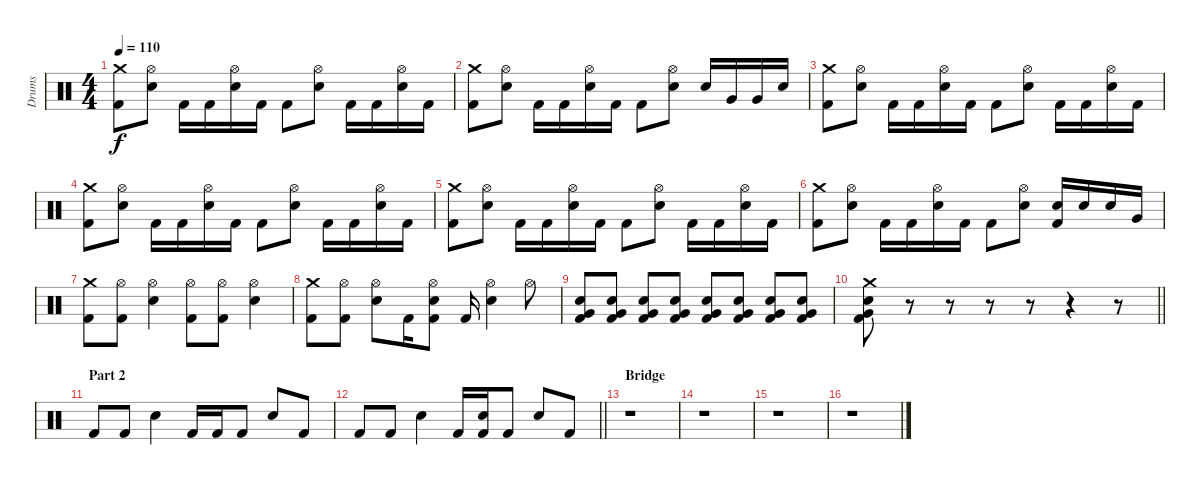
\track ("Drums" "Drums") {instrument percussion}
\staff {score}
\articulation defaults
\ts (4 4)
\tempo 110
\clef neutral
\ks c
("Crash medium (hit)" "Kick (hit) 2").8{dy f} ("Hi-Hat (open)" "Electric Snare (hit)").8 "Kick (hit) 2".16 "Kick (hit) 2".16 ("Hi-Hat (open)" "Electric Snare (hit)").16 "Kick (hit) 2".16 "Kick (hit) 2".8 ("Hi-Hat (open)" "Electric Snare (hit)").8 "Kick (hit) 2".16 "Kick (hit) 2".16 ("Hi-Hat (open)" "Electric Snare (hit)").16 "Kick (hit) 2".16 |
("Crash medium (hit)" "Kick (hit) 2").8 ("Hi-Hat (open)" "Electric Snare (hit)").8 "Kick (hit) 2".16 "Kick (hit) 2".16 ("Hi-Hat (open)" "Electric Snare (hit)").16 "Kick (hit) 2".16 "Kick (hit) 2".8 ("Hi-Hat (open)" "Electric Snare (hit)").8 "Electric Snare (hit)".16 "Very Low Tom (hit)".16 "Very Low Tom (hit)".16 "Electric Snare (hit)".16 |
("Crash medium (hit)" "Kick (hit) 2").8 ("Hi-Hat (open)" "Electric Snare (hit)").8 "Kick (hit) 2".16 "Kick (hit) 2".16 ("Hi-Hat (open)" "Electric Snare (hit)").16 "Kick (hit) 2".16 "Kick (hit) 2".8 ("Hi-Hat (open)" "Electric Snare (hit)").8 "Kick (hit) 2".16 "Kick (hit) 2".16 ("Hi-Hat (open)" "Electric Snare (hit)").16 "Kick (hit) 2".16 |
("Crash medium (hit)" "Kick (hit) 2").8 ("Hi-Hat (open)" "Electric Snare (hit)").8 "Kick (hit) 2".16 "Kick (hit) 2".16 ("Hi-Hat (open)" "Electric Snare (hit)").16 "Kick (hit) 2".16 "Kick (hit) 2".8 ("Hi-Hat (open)" "Electric Snare (hit)").8 "Kick (hit) 2".16 "Kick (hit) 2".16 ("Hi-Hat (open)" "Electric Snare (hit)").16 "Kick (hit) 2".16 |
("Crash medium (hit)" "Kick (hit) 2").8 ("Hi-Hat (open)" "Electric Snare (hit)").8 "Kick (hit) 2".16 "Kick (hit) 2".16 ("Hi-Hat (open)" "Electric Snare (hit)").16 "Kick (hit) 2".16 "Kick (hit) 2".8 ("Hi-Hat (open)" "Electric Snare (hit)").8 "Kick (hit) 2".16 "Kick (hit) 2".16 ("Hi-Hat (open)" "Electric Snare (hit)").16 "Kick (hit) 2".16 |
("Crash medium (hit)" "Kick (hit) 2").8 ("Hi-Hat (open)" "Electric Snare (hit)").8 "Kick (hit) 2".16 "Kick (hit) 2".16 ("Hi-Hat (open)" "Electric Snare (hit)").16 "Kick (hit) 2".16 "Kick (hit) 2".8 ("Hi-Hat (open)" "Electric Snare (hit)").8 ("Electric Snare (hit)" "Kick (hit) 2").16 "Electric Snare (hit)".16 "Electric Snare (hit)".16 "Very Low Tom (hit)".16 |
("Crash medium (hit)" "Kick (hit) 2").8 ("Hi-Hat (open)" "Kick (hit) 2").8 ("Hi-Hat (open)" "Electric Snare (hit)").4 ("Hi-Hat (open)" "Kick (hit) 2").8 ("Hi-Hat (open)" "Kick (hit) 2").8 ("Hi-Hat (open)" "Electric Snare (hit)").4 |
("Crash medium (hit)" "Kick (hit) 2").8 ("Hi-Hat (open)" "Kick (hit) 2").8 ("Hi-Hat (open)" "Electric Snare (hit)").8 "Kick (hit) 2".16 ("Hi-Hat (open)" "Electric Snare (hit)" "Kick (hit) 2").8 "Kick (hit) 2".16 ("Hi-Hat (open)" "Electric Snare (hit)").4 "Hi-Hat (open)".8 |
("Very Low Tom (hit)" "Electric Snare (hit)" "Kick (hit) 2").8 ("Very Low Tom (hit)" "Electric Snare (hit)" "Kick (hit) 2").8 ("Very Low Tom (hit)" "Electric Snare (hit)" "Kick (hit) 2").8 ("Very Low Tom (hit)" "Electric Snare (hit)" "Kick (hit) 2").8 ("Very Low Tom (hit)" "Electric Snare (hit)" "Kick (hit) 2").8 ("Very Low Tom (hit)" "Electric Snare (hit)" "Kick (hit) 2").8 ("Very Low Tom (hit)" "Electric Snare (hit)" "Kick (hit) 2").8 ("Very Low Tom (hit)" "Electric Snare (hit)" "Kick (hit) 2").8 |
\barLineRight lightlight
("Crash medium (hit)" "Very Low Tom (hit)" "Electric Snare (hit)" "Kick (hit) 2").8 r.8 r.8 r.8 r.8 r.4 r.8 |
\section ("" "Part 2")
"Kick (hit) 2".8 "Kick (hit) 2".8 "Electric Snare (hit)".4 "Kick (hit) 2".16 "Kick (hit) 2".16 "Kick (hit) 2".8 "Electric Snare (hit)".8 "Kick (hit) 2".8 |
\barLineRight lightlight "Kick (hit) 2".8 "Kick (hit) 2".8 "Electric Snare (hit)".4 "Kick (hit) 2".16
("Electric Snare (hit)" "Kick (hit) 2").16 "Kick (hit) 2".8 "Electric Snare (hit)".8 "Kick (hit) 2".8 |
\section ("" "Bridge")
r.1 |
r.1 |
r.1 |
r.1
